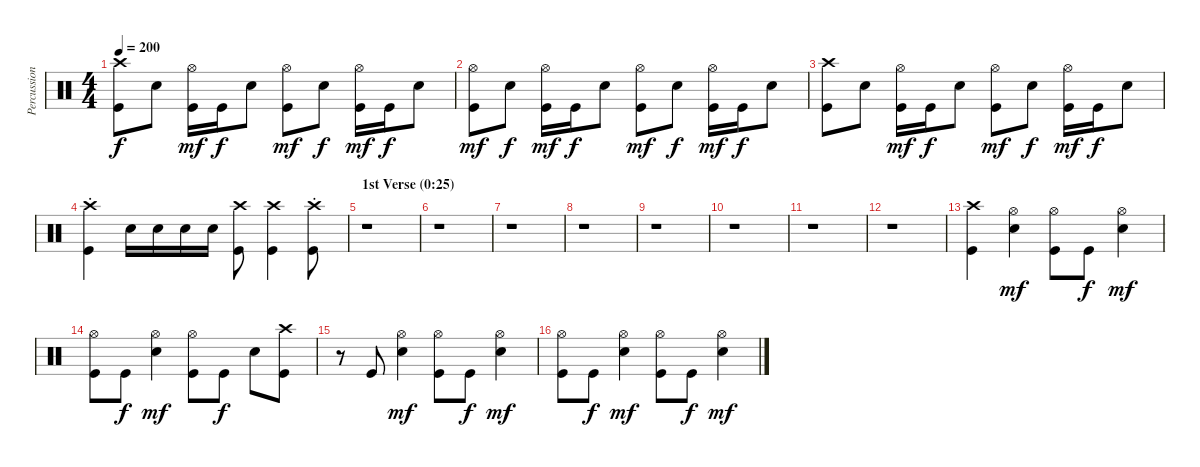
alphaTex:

\track ("Percussion" "Percussion") {instrument percussion}
\staff {score}
\articulation defaults
\ts (4 4)
\tempo 200
\clef neutral
\ks c
("Crash high (hit)" "Kick (hit)").8{dy f} "Snare (hit) 2".8 ("Hi-Hat (open)" "Kick (hit)").16{dy mf} "Kick (hit)".16{dy f} "Snare (hit) 2".8 ("Hi-Hat (open)" "Kick (hit)").8{dy mf} "Snare (hit) 2".8{dy f} ("Hi-Hat (open)" "Kick (hit)").16{dy mf} "Kick (hit)".16{dy f} "Snare (hit) 2".8 |
("Hi-Hat (open)" "Kick (hit)").8{dy mf} "Snare (hit) 2".8{dy f} ("Hi-Hat (open)" "Kick (hit)").16{dy mf} "Kick (hit)".16{dy f} "Snare (hit) 2".8 ("Hi-Hat (open)" "Kick (hit)").8{dy mf} "Snare (hit) 2".8{dy f} ("Hi-Hat (open)" "Kick (hit)").16{dy mf} "Kick (hit)".16{dy f} "Snare (hit) 2".8 |
("Crash high (hit)" "Kick (hit)").8 "Snare (hit) 2".8 ("Hi-Hat (open)" "Kick (hit)").16{dy mf} "Kick (hit)".16{dy f} "Snare (hit) 2".8 ("Hi-Hat (open)" "Kick (hit)").8{dy mf} "Snare (hit) 2".8{dy f} ("Hi-Hat (open)" "Kick (hit)").16{dy mf} "Kick (hit)".16{dy f} "Snare (hit) 2".8 |
("Crash high (hit)"{st} "Kick (hit)").4 "Snare (hit) 2".16 "Snare (hit) 2".16 "Snare (hit) 2".16 "Snare (hit) 2".16 ("Crash high (hit)" "Kick (hit)").8 ("Crash high (hit)" "Kick (hit)").4 ("Crash high (hit)"{st} "Kick (hit)").8 |
\section ("" "1st Verse (0:25)")
r.1 |
r.1 |
r.1 |
r.1 |
r.1 |
r.1 |
r.1 |
r.1 |
("Crash high (hit)" "Kick (hit)").4 ("Hi-Hat (open)" "Snare (hit) 2").4{dy mf} ("Hi-Hat (open)" "Kick (hit)").8 "Kick (hit)".8{dy f} ("Hi-Hat (open)" "Snare (hit) 2").4{dy mf} |
("Hi-Hat (open)" "Kick (hit)").8 "Kick (hit)".8{dy f} ("Hi-Hat (open)" "Snare (hit) 2").4{dy mf} ("Hi-Hat (open)" "Kick (hit)").8 "Kick (hit)".8{dy f} "Snare (hit) 2".8 ("Crash high (hit)" "Kick (hit)").8 |
r.8 "Kick (hit)".8 ("Hi-Hat (open)" "Snare (hit) 2").4{dy mf} ("Hi-Hat (open)" "Kick (hit)").8 "Kick (hit)".8{dy f} ("Hi-Hat (open)" "Snare (hit) 2").4{dy mf} |
("Hi-Hat (open)" "Kick (hit)").8 "Kick (hit)".8{dy f} ("Hi-Hat (open)" "Snare (hit) 2").4{dy mf} ("Hi-Hat (open)" "Kick (hit)").8 "Kick (hit)".8{dy f} ("Hi-Hat (open)" "Snare (hit) 2").4{dy mf}
